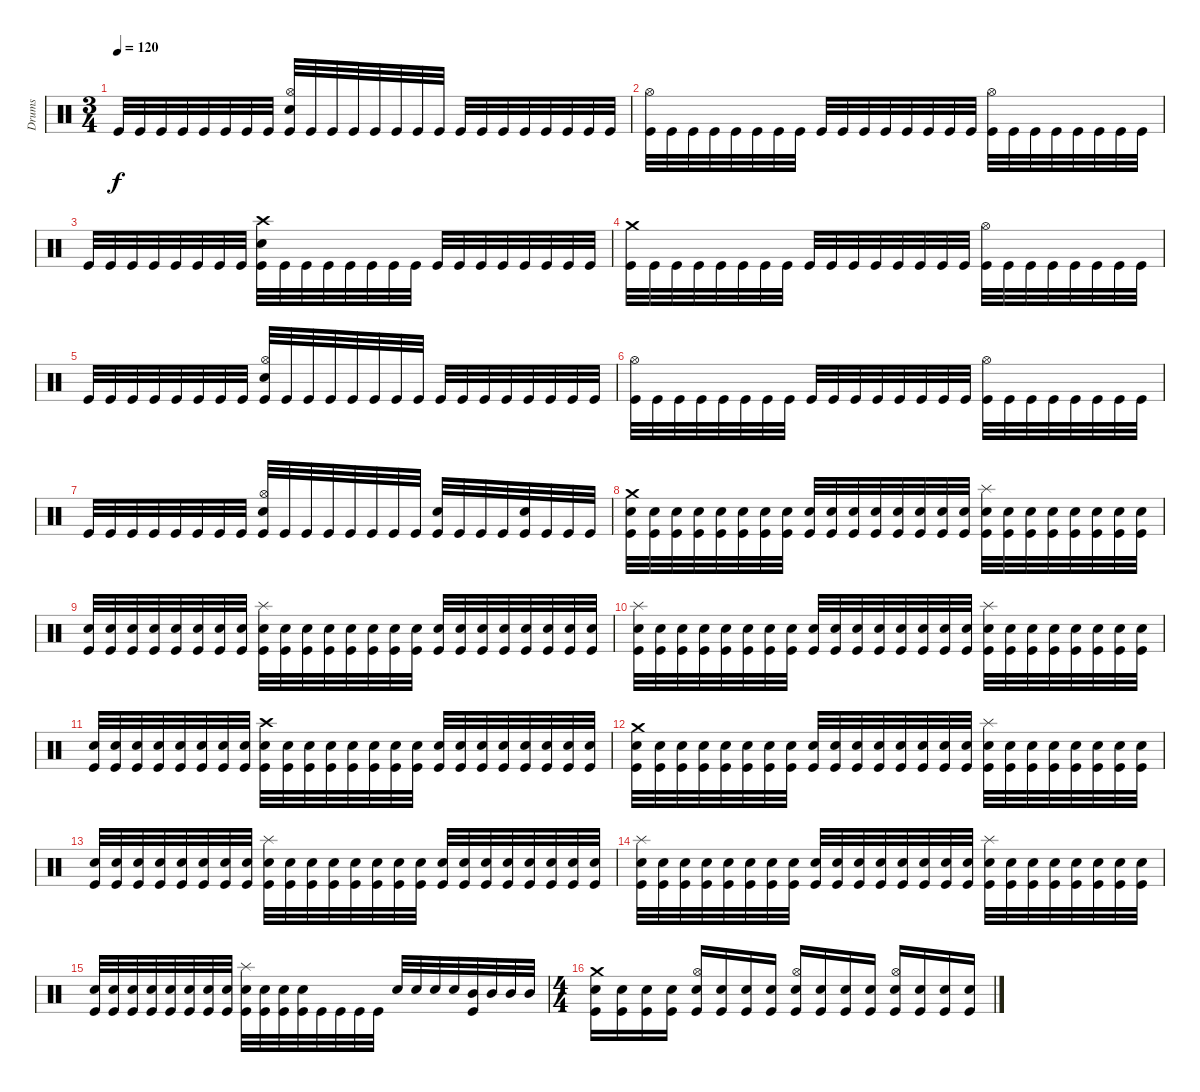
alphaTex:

\track ("Drums" "Drums") {instrument percussion}
\staff {score}
\articulation defaults
\ts (3 4)
\tempo 120
\clef neutral
\ks c "Kick (hit)".32{dy f} "Kick (hit)".32 "Kick (hit)".32 "Kick (hit)".32 "Kick (hit)".32 "Kick (hit)".32 "Kick (hit)".32 "Kick (hit)".32
("Kick (hit)" "Hi-Hat (open)" "Snare (hit) 2").32 "Kick (hit)".32 "Kick (hit)".32 "Kick (hit)".32 "Kick (hit)".32 "Kick (hit)".32 "Kick (hit)".32 "Kick (hit)".32 "Kick (hit)".32 "Kick (hit)".32 "Kick (hit)".32 "Kick (hit)".32 "Kick (hit)".32 "Kick (hit)".32 "Kick (hit)".32 "Kick (hit)".32 |
("Kick (hit)" "Hi-Hat (open)").32 "Kick (hit)".32 "Kick (hit)".32 "Kick (hit)".32 "Kick (hit)".32 "Kick (hit)".32 "Kick (hit)".32 "Kick (hit)".32 "Kick (hit)".32 "Kick (hit)".32 "Kick (hit)".32 "Kick (hit)".32 "Kick (hit)".32 "Kick (hit)".32 "Kick (hit)".32 "Kick (hit)".32 ("Kick (hit)" "Hi-Hat (open)").32 "Kick (hit)".32 "Kick (hit)".32 "Kick (hit)".32 "Kick (hit)".32 "Kick (hit)".32 "Kick (hit)".32 "Kick (hit)".32 |
"Kick (hit)".32 "Kick (hit)".32 "Kick (hit)".32 "Kick (hit)".32 "Kick (hit)".32 "Kick (hit)".32 "Kick (hit)".32 "Kick (hit)".32 ("Kick (hit)" "Snare (hit) 2" "Crash high (hit)").32 "Kick (hit)".32 "Kick (hit)".32 "Kick (hit)".32 "Kick (hit)".32 "Kick (hit)".32 "Kick (hit)".32 "Kick (hit)".32 "Kick (hit)".32 "Kick (hit)".32 "Kick (hit)".32 "Kick (hit)".32 "Kick (hit)".32 "Kick (hit)".32 "Kick (hit)".32 "Kick (hit)".32 |
("Kick (hit)" "Crash medium (hit)").32 "Kick (hit)".32 "Kick (hit)".32 "Kick (hit)".32 "Kick (hit)".32 "Kick (hit)".32 "Kick (hit)".32 "Kick (hit)".32 "Kick (hit)".32 "Kick (hit)".32 "Kick (hit)".32 "Kick (hit)".32 "Kick (hit)".32 "Kick (hit)".32 "Kick (hit)".32 "Kick (hit)".32 ("Kick (hit)" "Hi-Hat (open)").32 "Kick (hit)".32 "Kick (hit)".32 "Kick (hit)".32 "Kick (hit)".32 "Kick (hit)".32 "Kick (hit)".32 "Kick (hit)".32 |
"Kick (hit)".32 "Kick (hit)".32 "Kick (hit)".32 "Kick (hit)".32 "Kick (hit)".32 "Kick (hit)".32 "Kick (hit)".32 "Kick (hit)".32 ("Kick (hit)" "Hi-Hat (open)" "Snare (hit) 2").32 "Kick (hit)".32 "Kick (hit)".32 "Kick (hit)".32 "Kick (hit)".32 "Kick (hit)".32 "Kick (hit)".32 "Kick (hit)".32 "Kick (hit)".32 "Kick (hit)".32 "Kick (hit)".32 "Kick (hit)".32 "Kick (hit)".32 "Kick (hit)".32 "Kick (hit)".32 "Kick (hit)".32 |
("Kick (hit)" "Hi-Hat (open)").32 "Kick (hit)".32 "Kick (hit)".32 "Kick (hit)".32 "Kick (hit)".32 "Kick (hit)".32 "Kick (hit)".32 "Kick (hit)".32 "Kick (hit)".32 "Kick (hit)".32 "Kick (hit)".32 "Kick (hit)".32 "Kick (hit)".32 "Kick (hit)".32 "Kick (hit)".32 "Kick (hit)".32 ("Kick (hit)" "Hi-Hat (open)").32 "Kick (hit)".32 "Kick (hit)".32 "Kick (hit)".32 "Kick (hit)".32 "Kick (hit)".32 "Kick (hit)".32 "Kick (hit)".32 |
"Kick (hit)".32 "Kick (hit)".32 "Kick (hit)".32 "Kick (hit)".32 "Kick (hit)".32 "Kick (hit)".32 "Kick (hit)".32 "Kick (hit)".32 ("Kick (hit)" "Hi-Hat (open)" "Snare (hit) 2").32 "Kick (hit)".32 "Kick (hit)".32 "Kick (hit)".32 "Kick (hit)".32 "Kick (hit)".32 "Kick (hit)".32 "Kick (hit)".32 ("Kick (hit)" "Snare (hit) 2").32 "Kick (hit)".32 "Kick (hit)".32 "Kick (hit)".32 ("Kick (hit)" "Snare (hit) 2").32 "Kick (hit)".32 "Kick (hit)".32 "Kick (hit)".32 |
("Kick (hit)" "Snare (hit) 2" "Crash medium (hit)").32 ("Kick (hit)" "Snare (hit) 2").32 ("Kick (hit)" "Snare (hit) 2").32 ("Kick (hit)" "Snare (hit) 2").32 ("Kick (hit)" "Snare (hit) 2").32 ("Kick (hit)" "Snare (hit) 2").32 ("Kick (hit)" "Snare (hit) 2").32 ("Kick (hit)" "Snare (hit) 2").32 ("Kick (hit)" "Snare (hit) 2").32 ("Kick (hit)" "Snare (hit) 2").32 ("Kick (hit)" "Snare (hit) 2").32 ("Kick (hit)" "Snare (hit) 2").32 ("Kick (hit)" "Snare (hit) 2").32 ("Kick (hit)" "Snare (hit) 2").32 ("Kick (hit)" "Snare (hit) 2").32 ("Kick (hit)" "Snare (hit) 2").32 ("Kick (hit)" "Snare (hit) 2" "Splash (hit)").32 ("Kick (hit)" "Snare (hit) 2").32 ("Kick (hit)" "Snare (hit) 2").32 ("Kick (hit)" "Snare (hit) 2").32 ("Kick (hit)" "Snare (hit) 2").32 ("Kick (hit)" "Snare (hit) 2").32 ("Kick (hit)" "Snare (hit) 2").32 ("Kick (hit)" "Snare (hit) 2").32 |
("Kick (hit)" "Snare (hit) 2").32 ("Kick (hit)" "Snare (hit) 2").32 ("Kick (hit)" "Snare (hit) 2").32 ("Kick (hit)" "Snare (hit) 2").32 ("Kick (hit)" "Snare (hit) 2").32 ("Kick (hit)" "Snare (hit) 2").32 ("Kick (hit)" "Snare (hit) 2").32 ("Kick (hit)" "Snare (hit) 2").32 ("Kick (hit)" "Snare (hit) 2" "Splash (hit)").32 ("Kick (hit)" "Snare (hit) 2").32 ("Kick (hit)" "Snare (hit) 2").32 ("Kick (hit)" "Snare (hit) 2").32 ("Kick (hit)" "Snare (hit) 2").32 ("Kick (hit)" "Snare (hit) 2").32 ("Kick (hit)" "Snare (hit) 2").32 ("Kick (hit)" "Snare (hit) 2").32 ("Kick (hit)" "Snare (hit) 2").32 ("Kick (hit)" "Snare (hit) 2").32 ("Kick (hit)" "Snare (hit) 2").32 ("Kick (hit)" "Snare (hit) 2").32 ("Kick (hit)" "Snare (hit) 2").32 ("Kick (hit)" "Snare (hit) 2").32 ("Kick (hit)" "Snare (hit) 2").32 ("Kick (hit)" "Snare (hit) 2").32 |
("Kick (hit)" "Snare (hit) 2" "Splash (hit)").32 ("Kick (hit)" "Snare (hit) 2").32 ("Kick (hit)" "Snare (hit) 2").32 ("Kick (hit)" "Snare (hit) 2").32 ("Kick (hit)" "Snare (hit) 2").32 ("Kick (hit)" "Snare (hit) 2").32 ("Kick (hit)" "Snare (hit) 2").32 ("Kick (hit)" "Snare (hit) 2").32 ("Kick (hit)" "Snare (hit) 2").32 ("Kick (hit)" "Snare (hit) 2").32 ("Kick (hit)" "Snare (hit) 2").32 ("Kick (hit)" "Snare (hit) 2").32 ("Kick (hit)" "Snare (hit) 2").32 ("Kick (hit)" "Snare (hit) 2").32 ("Kick (hit)" "Snare (hit) 2").32 ("Kick (hit)" "Snare (hit) 2").32 ("Kick (hit)" "Snare (hit) 2" "Splash (hit)").32 ("Kick (hit)" "Snare (hit) 2").32 ("Kick (hit)" "Snare (hit) 2").32 ("Kick (hit)" "Snare (hit) 2").32 ("Kick (hit)" "Snare (hit) 2").32 ("Kick (hit)" "Snare (hit) 2").32 ("Kick (hit)" "Snare (hit) 2").32 ("Kick (hit)" "Snare (hit) 2").32 |
("Kick (hit)" "Snare (hit) 2").32 ("Kick (hit)" "Snare (hit) 2").32 ("Kick (hit)" "Snare (hit) 2").32 ("Kick (hit)" "Snare (hit) 2").32 ("Kick (hit)" "Snare (hit) 2").32 ("Kick (hit)" "Snare (hit) 2").32 ("Kick (hit)" "Snare (hit) 2").32 ("Kick (hit)" "Snare (hit) 2").32 ("Kick (hit)" "Snare (hit) 2" "Crash high (hit)").32 ("Kick (hit)" "Snare (hit) 2").32 ("Kick (hit)" "Snare (hit) 2").32 ("Kick (hit)" "Snare (hit) 2").32 ("Kick (hit)" "Snare (hit) 2").32 ("Kick (hit)" "Snare (hit) 2").32 ("Kick (hit)" "Snare (hit) 2").32 ("Kick (hit)" "Snare (hit) 2").32 ("Kick (hit)" "Snare (hit) 2").32 ("Kick (hit)" "Snare (hit) 2").32 ("Kick (hit)" "Snare (hit) 2").32 ("Kick (hit)" "Snare (hit) 2").32 ("Kick (hit)" "Snare (hit) 2").32 ("Kick (hit)" "Snare (hit) 2").32 ("Kick (hit)" "Snare (hit) 2").32 ("Kick (hit)" "Snare (hit) 2").32 |
("Kick (hit)" "Snare (hit) 2" "Crash medium (hit)").32 ("Kick (hit)" "Snare (hit) 2").32 ("Kick (hit)" "Snare (hit) 2").32 ("Kick (hit)" "Snare (hit) 2").32 ("Kick (hit)" "Snare (hit) 2").32 ("Kick (hit)" "Snare (hit) 2").32 ("Kick (hit)" "Snare (hit) 2").32 ("Kick (hit)" "Snare (hit) 2").32 ("Kick (hit)" "Snare (hit) 2").32 ("Kick (hit)" "Snare (hit) 2").32 ("Kick (hit)" "Snare (hit) 2").32 ("Kick (hit)" "Snare (hit) 2").32 ("Kick (hit)" "Snare (hit) 2").32 ("Kick (hit)" "Snare (hit) 2").32 ("Kick (hit)" "Snare (hit) 2").32 ("Kick (hit)" "Snare (hit) 2").32 ("Kick (hit)" "Snare (hit) 2" "Splash (hit)").32 ("Kick (hit)" "Snare (hit) 2").32 ("Kick (hit)" "Snare (hit) 2").32 ("Kick (hit)" "Snare (hit) 2").32 ("Kick (hit)" "Snare (hit) 2").32 ("Kick (hit)" "Snare (hit) 2").32 ("Kick (hit)" "Snare (hit) 2").32 ("Kick (hit)" "Snare (hit) 2").32 |
("Kick (hit)" "Snare (hit) 2").32 ("Kick (hit)" "Snare (hit) 2").32 ("Kick (hit)" "Snare (hit) 2").32 ("Kick (hit)" "Snare (hit) 2").32 ("Kick (hit)" "Snare (hit) 2").32 ("Kick (hit)" "Snare (hit) 2").32 ("Kick (hit)" "Snare (hit) 2").32 ("Kick (hit)" "Snare (hit) 2").32 ("Kick (hit)" "Snare (hit) 2" "Splash (hit)").32 ("Kick (hit)" "Snare (hit) 2").32 ("Kick (hit)" "Snare (hit) 2").32 ("Kick (hit)" "Snare (hit) 2").32 ("Kick (hit)" "Snare (hit) 2").32 ("Kick (hit)" "Snare (hit) 2").32 ("Kick (hit)" "Snare (hit) 2").32 ("Kick (hit)" "Snare (hit) 2").32 ("Kick (hit)" "Snare (hit) 2").32 ("Kick (hit)" "Snare (hit) 2").32 ("Kick (hit)" "Snare (hit) 2").32 ("Kick (hit)" "Snare (hit) 2").32 ("Kick (hit)" "Snare (hit) 2").32 ("Kick (hit)" "Snare (hit) 2").32 ("Kick (hit)" "Snare (hit) 2").32 ("Kick (hit)" "Snare (hit) 2").32 |
("Kick (hit)" "Snare (hit) 2" "Splash (hit)").32 ("Kick (hit)" "Snare (hit) 2").32 ("Kick (hit)" "Snare (hit) 2").32 ("Kick (hit)" "Snare (hit) 2").32 ("Kick (hit)" "Snare (hit) 2").32 ("Kick (hit)" "Snare (hit) 2").32 ("Kick (hit)" "Snare (hit) 2").32 ("Kick (hit)" "Snare (hit) 2").32 ("Kick (hit)" "Snare (hit) 2").32 ("Kick (hit)" "Snare (hit) 2").32 ("Kick (hit)" "Snare (hit) 2").32 ("Kick (hit)" "Snare (hit) 2").32 ("Kick (hit)" "Snare (hit) 2").32 ("Kick (hit)" "Snare (hit) 2").32 ("Kick (hit)" "Snare (hit) 2").32 ("Kick (hit)" "Snare (hit) 2").32 ("Kick (hit)" "Snare (hit) 2" "Splash (hit)").32 ("Kick (hit)" "Snare (hit) 2").32 ("Kick (hit)" "Snare (hit) 2").32 ("Kick (hit)" "Snare (hit) 2").32 ("Kick (hit)" "Snare (hit) 2").32 ("Kick (hit)" "Snare (hit) 2").32 ("Kick (hit)" "Snare (hit) 2").32 ("Kick (hit)" "Snare (hit) 2").32 |
("Kick (hit)" "Snare (hit) 2").32 ("Kick (hit)" "Snare (hit) 2").32 ("Kick (hit)" "Snare (hit) 2").32 ("Kick (hit)" "Snare (hit) 2").32 ("Kick (hit)" "Snare (hit) 2").32 ("Kick (hit)" "Snare (hit) 2").32 ("Kick (hit)" "Snare (hit) 2").32 ("Kick (hit)" "Snare (hit) 2").32 ("Kick (hit)" "Snare (hit) 2" "Splash (hit)").32 ("Kick (hit)" "Snare (hit) 2").32 ("Kick (hit)" "Snare (hit) 2").32 ("Kick (hit)" "Snare (hit) 2").32 "Kick (hit)".32 "Kick (hit)".32 "Kick (hit)".32 "Kick (hit)".32 "Snare (hit) 2".32 "Snare (hit) 2".32 "Snare (hit) 2".32 "Snare (hit) 2".32 ("Mid Tom (hit)" "Kick (hit)").32 "Mid Tom (hit)".32 "Mid Tom (hit)".32 "Mid Tom (hit)".32 |
\ts (4 4)
("Snare (hit) 2" "Kick (hit)" "Crash medium (hit)").16 ("Snare (hit) 2" "Kick (hit)").16 ("Snare (hit) 2" "Kick (hit)").16 ("Snare (hit) 2" "Kick (hit)").16 ("Snare (hit) 2" "Kick (hit)" "Hi-Hat (open)").16 ("Snare (hit) 2" "Kick (hit)").16 ("Snare (hit) 2" "Kick (hit)").16 ("Snare (hit) 2" "Kick (hit)").16 ("Snare (hit) 2" "Kick (hit)" "Hi-Hat (open)").16 ("Snare (hit) 2" "Kick (hit)").16 ("Snare (hit) 2" "Kick (hit)").16 ("Snare (hit) 2" "Kick (hit)").16 ("Snare (hit) 2" "Kick (hit)" "Hi-Hat (open)").16 ("Snare (hit) 2" "Kick (hit)").16 ("Snare (hit) 2" "Kick (hit)").16 ("Snare (hit) 2" "Kick (hit)").16
